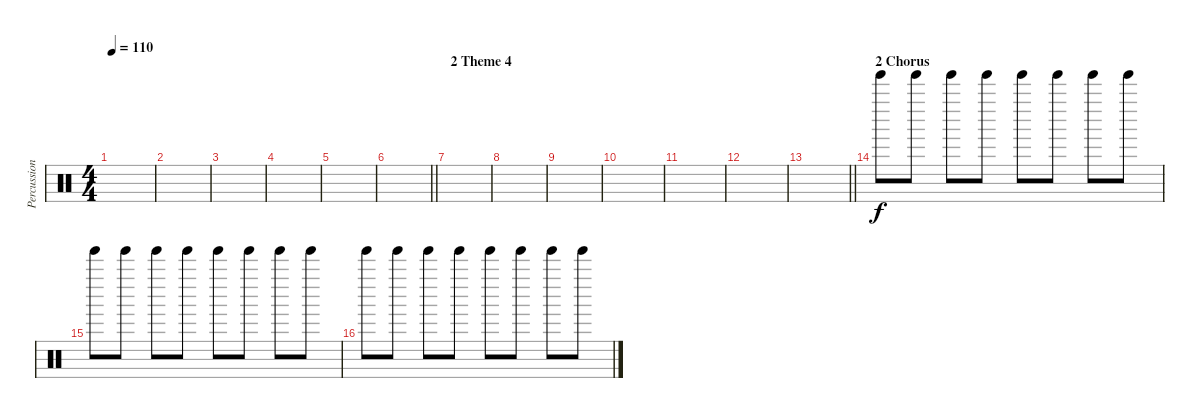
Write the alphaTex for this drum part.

\track ("Percussion" "Percussion") {instrument percussion}
\staff {score}
\articulation defaults
\ts (4 4)
\tempo 110
\clef neutral
\ks c
|
|
|
|
|
\barLineRight lightlight
|
\section ("" "2 Theme 4")
|
|
|
|
|
|
\barLineRight lightlight
|
\section ("" "2 Chorus")
"Tinkle Bell (hit)".8 "Tinkle Bell (hit)".8 "Tinkle Bell (hit)".8 "Tinkle Bell (hit)".8 "Tinkle Bell (hit)".8 "Tinkle Bell (hit)".8 "Tinkle Bell (hit)".8 "Tinkle Bell (hit)".8 |
"Tinkle Bell (hit)".8 "Tinkle Bell (hit)".8 "Tinkle Bell (hit)".8 "Tinkle Bell (hit)".8 "Tinkle Bell (hit)".8 "Tinkle Bell (hit)".8 "Tinkle Bell (hit)".8 "Tinkle Bell (hit)".8 |
"Tinkle Bell (hit)".8 "Tinkle Bell (hit)".8 "Tinkle Bell (hit)".8 "Tinkle Bell (hit)".8 "Tinkle Bell (hit)".8 "Tinkle Bell (hit)".8 "Tinkle Bell (hit)".8 "Tinkle Bell (hit)".8
